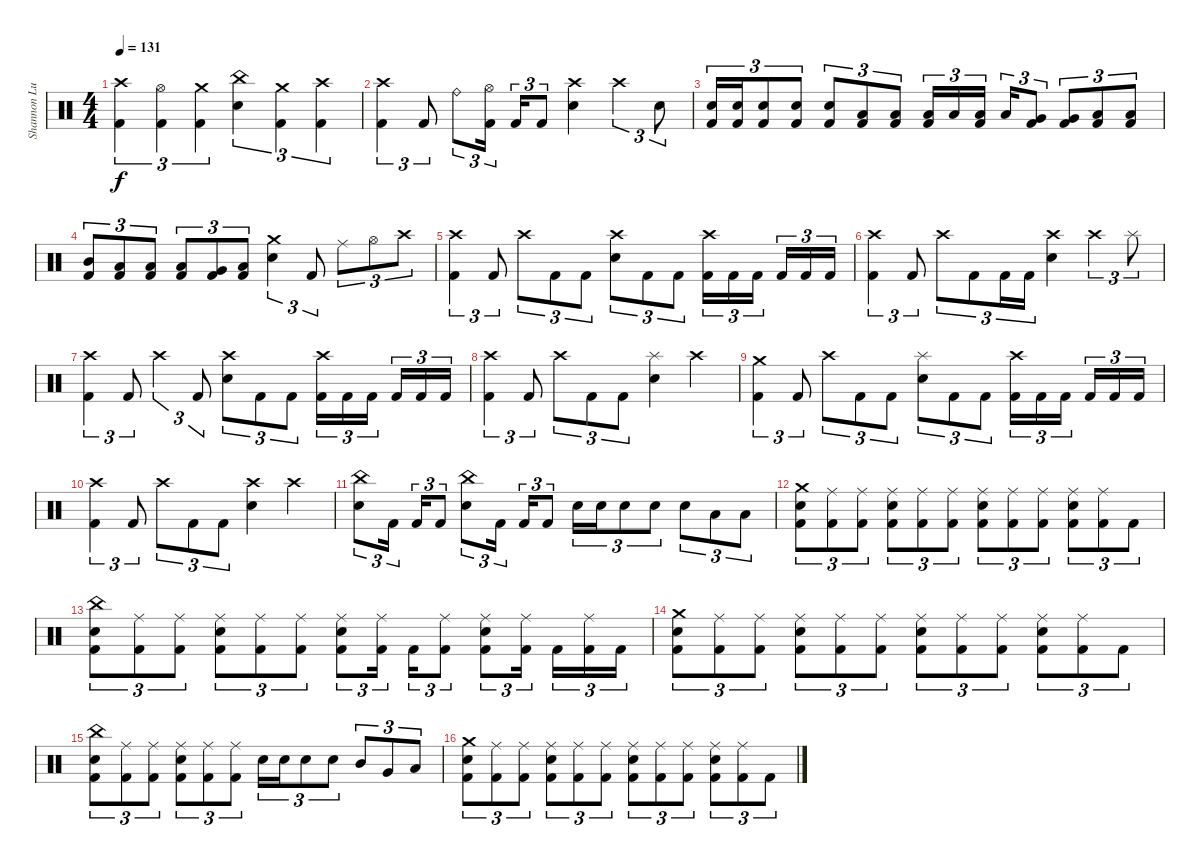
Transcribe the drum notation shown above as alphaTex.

\track ("Shannon Lucas [Drums (Since 2007)]" "Shannon Lu") {instrument percussion}
\staff {score}
\articulation defaults
\ts (4 4)
\tempo 131
\clef neutral
\ks c
("Crash high (hit)" "Kick (hit) 2").4{tu (3 2) dy f} ("Hi-Hat (open)" "Kick (hit) 2").4{tu (3 2)} ("Crash medium (hit)" "Kick (hit) 2").4{tu (3 2)} ("China (hit)" "Snare (hit) 2").4{tu (3 2)} ("Crash medium (hit)" "Kick (hit) 2").4{tu (3 2)} ("Crash high (hit)" "Kick (hit) 2").4{tu (3 2)} |
("Kick (hit) 2" "Crash high (hit)").4{tu (3 2)} "Kick (hit) 2".8{tu (3 2)} "Ride (bell)".8{tu (3 2)} ("Hi-Hat (open)" "Kick (hit) 2").16{tu (3 2)} "Kick (hit) 2".16{tu (3 2)} "Kick (hit) 2".8{tu (3 2)} ("Crash high (hit)" "Snare (hit) 2").4 "Crash high (hit)".4{tu (3 2)} "Snare (hit) 2".8{tu (3 2)} |
("Kick (hit) 2" "Snare (hit) 2").16{tu (3 2)} ("Kick (hit) 2" "Snare (hit) 2").16{tu (3 2)} ("Kick (hit) 2" "Snare (hit) 2").8{tu (3 2)} ("Kick (hit) 2" "Snare (hit) 2").8{tu (3 2)} ("Kick (hit) 2" "Snare (hit) 2").8{tu (3 2)} ("Kick (hit) 2" "Low Tom (hit)").8{tu (3 2)} ("Kick (hit) 2" "Low Floor Tom (hit)").8{tu (3 2)} ("Low Tom (hit)" "Kick (hit) 2").16{tu (3 2)} "Low Tom (hit)".16{tu (3 2)} ("Low Tom (hit)" "Kick (hit) 2").16{tu (3 2)} "Low Tom (hit)".16{tu (3 2)} ("Very Low Tom (hit)" "Kick (hit) 2").8{tu (3 2)} ("Very Low Tom (hit)" "Kick (hit) 2").8{tu (3 2)} ("Low Floor Tom (hit)" "Kick (hit) 2").8{tu (3 2)} ("Low Floor Tom (hit)" "Kick (hit) 2").8{tu (3 2)} |
("Mid Tom (hit)" "Kick (hit) 2").8{tu (3 2)} ("Low Tom (hit)" "Kick (hit) 2").8{tu (3 2)} ("Low Floor Tom (hit)" "Kick (hit) 2").8{tu (3 2)} ("Low Tom (hit)" "Kick (hit) 2").8{tu (3 2)} ("Very Low Tom (hit)" "Kick (hit) 2").8{tu (3 2)} ("Low Floor Tom (hit)" "Kick (hit) 2").8{tu (3 2)} ("Crash medium (hit)" "Snare (hit) 2").4{tu (3 2)} "Kick (hit) 2".8{tu (3 2)} "Ride (middle)".8{tu (3 2)} "Hi-Hat (open)".8{tu (3 2)} "Crash high (hit)".8{tu (3 2)} |
("Kick (hit) 2" "Crash high (hit)").4{tu (3 2)} "Kick (hit) 2".8{tu (3 2)} "Crash high (hit)".8{tu (3 2)} "Kick (hit) 2".8{tu (3 2)} "Kick (hit) 2".8{tu (3 2)} ("Snare (hit) 2" "Crash high (hit)").8{tu (3 2)} "Kick (hit) 2".8{tu (3 2)} "Kick (hit) 2".8{tu (3 2)} ("Crash high (hit)" "Kick (hit) 2").16{tu (3 2)} "Kick (hit) 2".16{tu (3 2)} "Kick (hit) 2".16{tu (3 2)} "Kick (hit) 2".16{tu (3 2)} "Kick (hit) 2".16{tu (3 2)} "Kick (hit) 2".16{tu (3 2)} |
("Kick (hit) 2" "Crash high (hit)").4{tu (3 2)} "Kick (hit) 2".8{tu (3 2)} "Crash high (hit)".8{tu (3 2)} "Kick (hit) 2".8{tu (3 2)} "Kick (hit) 2".16{tu (3 2)} "Kick (hit) 2".16{tu (3 2)} ("Snare (hit) 2" "Crash high (hit)").4 "Crash high (hit)".4{tu (3 2)} "Splash (hit)".8{tu (3 2)} |
("Kick (hit) 2" "Crash high (hit)").4{tu (3 2)} "Kick (hit) 2".8{tu (3 2)} "Crash high (hit)".4{tu (3 2)} "Kick (hit) 2".8{tu (3 2)} ("Snare (hit) 2" "Crash high (hit)").8{tu (3 2)} "Kick (hit) 2".8{tu (3 2)} "Kick (hit) 2".8{tu (3 2)} ("Crash high (hit)" "Kick (hit) 2").16{tu (3 2)} "Kick (hit) 2".16{tu (3 2)} "Kick (hit) 2".16{tu (3 2)} "Kick (hit) 2".16{tu (3 2)} "Kick (hit) 2".16{tu (3 2)} "Kick (hit) 2".16{tu (3 2)} |
("Kick (hit) 2" "Crash high (hit)").4{tu (3 2)} "Kick (hit) 2".8{tu (3 2)} "Crash high (hit)".8{tu (3 2)} "Kick (hit) 2".8{tu (3 2)} "Kick (hit) 2".8{tu (3 2)} ("Snare (hit) 2" "Splash (hit)").4 "Crash high (hit)".4 |
("Crash medium (hit)" "Kick (hit) 2").4{tu (3 2)} "Kick (hit) 2".8{tu (3 2)} "Crash high (hit)".8{tu (3 2)} "Kick (hit) 2".8{tu (3 2)} "Kick (hit) 2".8{tu (3 2)} ("Splash (hit)" "Snare (hit) 2").8{tu (3 2)} "Kick (hit) 2".8{tu (3 2)} "Kick (hit) 2".8{tu (3 2)} ("Crash high (hit)" "Kick (hit) 2").16{tu (3 2)} "Kick (hit) 2".16{tu (3 2)} "Kick (hit) 2".16{tu (3 2)} "Kick (hit) 2".16{tu (3 2)} "Kick (hit) 2".16{tu (3 2)} "Kick (hit) 2".16{tu (3 2)} |
("Kick (hit) 2" "Crash high (hit)").4{tu (3 2)} "Kick (hit) 2".8{tu (3 2)} "Crash high (hit)".8{tu (3 2)} "Kick (hit) 2".8{tu (3 2)} "Kick (hit) 2".8{tu (3 2)} ("Snare (hit) 2" "Crash high (hit)").4 "Crash high (hit)".4 |
("China (hit)" "Snare (hit) 2").8{tu (3 2)} "Kick (hit) 2".16{tu (3 2)} "Kick (hit) 2".16{tu (3 2)} "Kick (hit) 2".8{tu (3 2)} ("China (hit)" "Snare (hit) 2").8{tu (3 2)} "Kick (hit) 2".16{tu (3 2)} "Kick (hit) 2".16{tu (3 2)} "Kick (hit) 2".8{tu (3 2)} "Snare (hit) 2".16{tu (3 2)} "Snare (hit) 2".16{tu (3 2)} "Snare (hit) 2".8{tu (3 2)} "Snare (hit) 2".8{tu (3 2)} "Snare (hit) 2".8{tu (3 2)} "Low Tom (hit)".8{tu (3 2)} "Low Floor Tom (hit)".8{tu (3 2)} |
("Crash medium (hit)" "Snare (hit) 2" "Kick (hit) 2").8{tu (3 2)} ("Ride (middle)" "Kick (hit) 2").8{tu (3 2)} ("Ride (middle)" "Kick (hit) 2").8{tu (3 2)} ("Ride (middle)" "Snare (hit) 2" "Kick (hit) 2").8{tu (3 2)} ("Ride (middle)" "Kick (hit) 2").8{tu (3 2)} ("Ride (middle)" "Kick (hit) 2").8{tu (3 2)} ("Ride (middle)" "Snare (hit) 2" "Kick (hit) 2").8{tu (3 2)} ("Ride (middle)" "Kick (hit) 2").8{tu (3 2)} ("Ride (middle)" "Kick (hit) 2").8{tu (3 2)} ("Ride (middle)" "Snare (hit) 2" "Kick (hit) 2").8{tu (3 2)} ("Ride (middle)" "Kick (hit) 2").8{tu (3 2)} "Kick (hit) 2".8{tu (3 2)} |
("China (hit)" "Snare (hit) 2" "Kick (hit) 2").8{tu (3 2)} ("Ride (middle)" "Kick (hit) 2").8{tu (3 2)} ("Ride (middle)" "Kick (hit) 2").8{tu (3 2)} ("Ride (middle)" "Snare (hit) 2" "Kick (hit) 2").8{tu (3 2)} ("Ride (middle)" "Kick (hit) 2").8{tu (3 2)} ("Ride (middle)" "Kick (hit) 2").8{tu (3 2)} ("Ride (middle)" "Snare (hit) 2" "Kick (hit) 2").8{tu (3 2)} ("Ride (middle)" "Kick (hit) 2").16{tu (3 2)} "Kick (hit) 2".16{tu (3 2)} ("Ride (middle)" "Kick (hit) 2").8{tu (3 2)} ("Ride (middle)" "Snare (hit) 2" "Kick (hit) 2").8{tu (3 2)} ("Ride (middle)" "Kick (hit) 2").16{tu (3 2)} "Kick (hit) 2".16{tu (3 2)} ("Ride (middle)" "Kick (hit) 2").16{tu (3 2)} "Kick (hit) 2".16{tu (3 2)} |
("Crash medium (hit)" "Snare (hit) 2" "Kick (hit) 2").8{tu (3 2)} ("Ride (middle)" "Kick (hit) 2").8{tu (3 2)} ("Ride (middle)" "Kick (hit) 2").8{tu (3 2)} ("Ride (middle)" "Snare (hit) 2" "Kick (hit) 2").8{tu (3 2)} ("Ride (middle)" "Kick (hit) 2").8{tu (3 2)} ("Ride (middle)" "Kick (hit) 2").8{tu (3 2)} ("Ride (middle)" "Snare (hit) 2" "Kick (hit) 2").8{tu (3 2)} ("Ride (middle)" "Kick (hit) 2").8{tu (3 2)} ("Ride (middle)" "Kick (hit) 2").8{tu (3 2)} ("Ride (middle)" "Snare (hit) 2" "Kick (hit) 2").8{tu (3 2)} ("Ride (middle)" "Kick (hit) 2").8{tu (3 2)} "Kick (hit) 2".8{tu (3 2)} |
("China (hit)" "Snare (hit) 2" "Kick (hit) 2").8{tu (3 2)} ("Ride (middle)" "Kick (hit) 2").8{tu (3 2)} ("Ride (middle)" "Kick (hit) 2").8{tu (3 2)} ("Ride (middle)" "Snare (hit) 2" "Kick (hit) 2").8{tu (3 2)} ("Ride (middle)" "Kick (hit) 2").8{tu (3 2)} ("Ride (middle)" "Kick (hit) 2").8{tu (3 2)} "Snare (hit) 2".16{tu (3 2)} "Snare (hit) 2".16{tu (3 2)} "Snare (hit) 2".8{tu (3 2)} "Snare (hit) 2".8{tu (3 2)} "Mid Tom (hit)".8{tu (3 2)} "Very Low Tom (hit)".8{tu (3 2)} "Low Floor Tom (hit)".8{tu (3 2)} |
("Crash medium (hit)" "Snare (hit) 2" "Kick (hit) 2").8{tu (3 2)} ("Ride (middle)" "Kick (hit) 2").8{tu (3 2)} ("Ride (middle)" "Kick (hit) 2").8{tu (3 2)} ("Ride (middle)" "Snare (hit) 2" "Kick (hit) 2").8{tu (3 2)} ("Ride (middle)" "Kick (hit) 2").8{tu (3 2)} ("Ride (middle)" "Kick (hit) 2").8{tu (3 2)} ("Ride (middle)" "Snare (hit) 2" "Kick (hit) 2").8{tu (3 2)} ("Ride (middle)" "Kick (hit) 2").8{tu (3 2)} ("Ride (middle)" "Kick (hit) 2").8{tu (3 2)} ("Ride (middle)" "Snare (hit) 2" "Kick (hit) 2").8{tu (3 2)} ("Ride (middle)" "Kick (hit) 2").8{tu (3 2)} "Kick (hit) 2".8{tu (3 2)}
